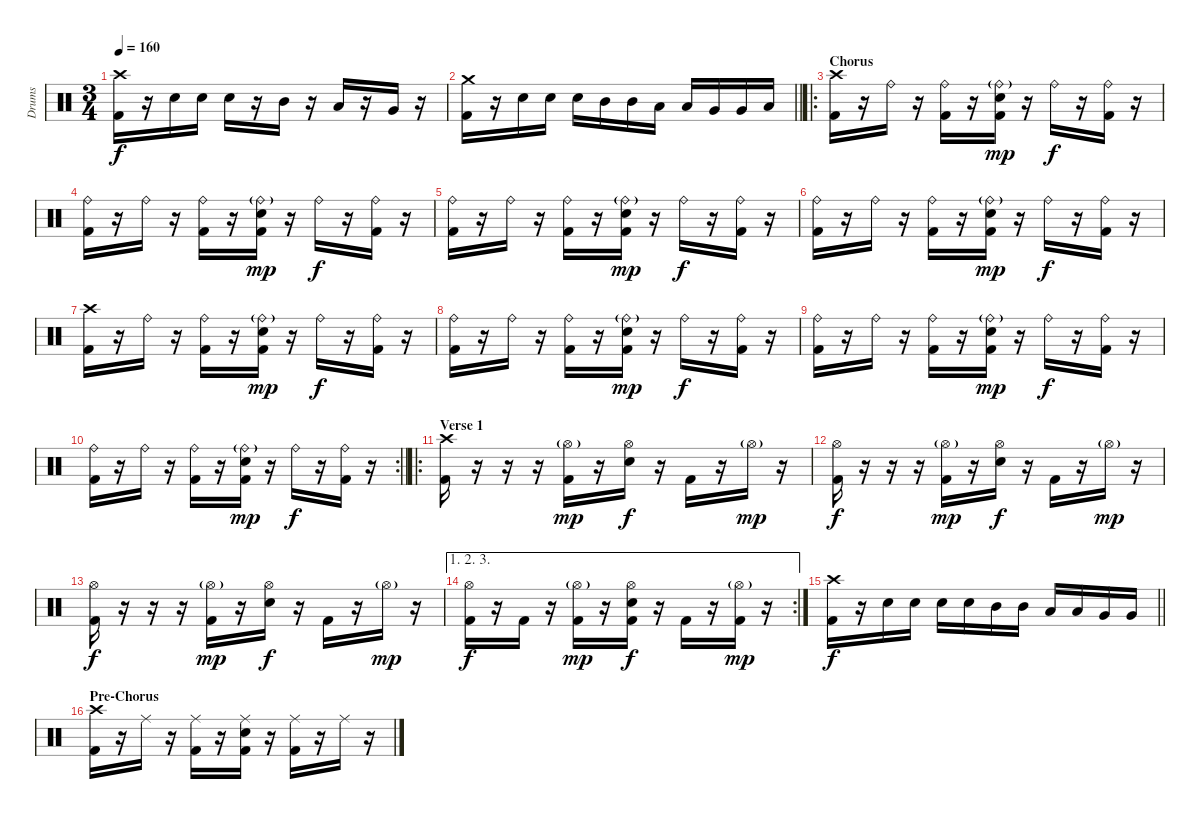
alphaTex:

\track ("Drums" "Drums") {instrument percussion}
\staff {score}
\articulation defaults
\ts (3 4)
\tempo 160
\clef neutral
\ks c
("Crash high (hit)" "Kick (hit) 2").16{dy f} r.16 "Snare (hit) 2".16 "Snare (hit) 2".16 "Snare (hit) 2".16 r.16 "Mid Tom (hit)".16 r.16 "Low Tom (hit)".16 r.16 "Very Low Tom (hit)".16 r.16 |
\barLineRight lightlight
("Crash medium (hit)" "Kick (hit) 2").16 r.16 "Snare (hit) 2".16 "Snare (hit) 2".16 "Snare (hit) 2".16 "Mid Tom (hit)".16 "Mid Tom (hit)".16 "Low Tom (hit)".16 "Low Tom (hit)".16 "Very Low Tom (hit)".16 "Very Low Tom (hit)".16 "Low Floor Tom (hit)".16 |
\ro
\section ("" "Chorus")
("Crash high (hit)" "Kick (hit) 2").16 r.16 "Ride (bell)".16 r.16 ("Ride (bell)" "Kick (hit) 2").16 r.16 ("Ride (bell)"{g} "Snare (hit) 2" "Kick (hit) 2").16{dy mp} r.16 "Ride (bell)".16{dy f} r.16 ("Ride (bell)" "Kick (hit) 2").16 r.16 |
("Ride (bell)" "Kick (hit) 2").16 r.16 "Ride (bell)".16 r.16 ("Ride (bell)" "Kick (hit) 2").16 r.16 ("Ride (bell)"{g} "Snare (hit) 2" "Kick (hit) 2").16{dy mp} r.16 "Ride (bell)".16{dy f} r.16 ("Ride (bell)" "Kick (hit) 2").16 r.16 |
("Ride (bell)" "Kick (hit) 2").16 r.16 "Ride (bell)".16 r.16 ("Ride (bell)" "Kick (hit) 2").16 r.16 ("Ride (bell)"{g} "Snare (hit) 2" "Kick (hit) 2").16{dy mp} r.16 "Ride (bell)".16{dy f} r.16 ("Ride (bell)" "Kick (hit) 2").16 r.16 |
("Ride (bell)" "Kick (hit) 2").16 r.16 "Ride (bell)".16 r.16 ("Ride (bell)" "Kick (hit) 2").16 r.16 ("Ride (bell)"{g} "Snare (hit) 2" "Kick (hit) 2").16{dy mp} r.16 "Ride (bell)".16{dy f} r.16 ("Ride (bell)" "Kick (hit) 2").16 r.16 |
("Crash high (hit)" "Kick (hit) 2").16 r.16 "Ride (bell)".16 r.16 ("Ride (bell)" "Kick (hit) 2").16 r.16 ("Ride (bell)"{g} "Snare (hit) 2" "Kick (hit) 2").16{dy mp} r.16 "Ride (bell)".16{dy f} r.16 ("Ride (bell)" "Kick (hit) 2").16 r.16 |
("Ride (bell)" "Kick (hit) 2").16 r.16 "Ride (bell)".16 r.16 ("Ride (bell)" "Kick (hit) 2").16 r.16 ("Ride (bell)"{g} "Snare (hit) 2" "Kick (hit) 2").16{dy mp} r.16 "Ride (bell)".16{dy f} r.16 ("Ride (bell)" "Kick (hit) 2").16 r.16 |
("Ride (bell)" "Kick (hit) 2").16 r.16 "Ride (bell)".16 r.16 ("Ride (bell)" "Kick (hit) 2").16 r.16 ("Ride (bell)"{g} "Snare (hit) 2" "Kick (hit) 2").16{dy mp} r.16 "Ride (bell)".16{dy f} r.16 ("Ride (bell)" "Kick (hit) 2").16 r.16 |
\rc 2
\barLineRight lightlight
("Ride (bell)" "Kick (hit) 2").16 r.16 "Ride (bell)".16 r.16 ("Ride (bell)" "Kick (hit) 2").16 r.16 ("Ride (bell)"{g} "Snare (hit) 2" "Kick (hit) 2").16{dy mp} r.16 "Ride (bell)".16{dy f} r.16 ("Ride (bell)" "Kick (hit) 2").16 r.16 |
\ro
\section ("" "Verse 1")
("Crash high (hit)" "Kick (hit) 2").16 r.16 r.16 r.16 ("Hi-Hat (open)"{g} "Kick (hit) 2").16{dy mp} r.16 ("Hi-Hat (open)" "Snare (hit) 2").16{dy f} r.16 "Kick (hit) 2".16 r.16 "Hi-Hat (open)"{g}.16{dy mp} r.16 |
("Hi-Hat (open)" "Kick (hit) 2").16{dy f} r.16 r.16 r.16 ("Hi-Hat (open)"{g} "Kick (hit) 2").16{dy mp} r.16 ("Hi-Hat (open)" "Snare (hit) 2").16{dy f} r.16 "Kick (hit) 2".16 r.16 "Hi-Hat (open)"{g}.16{dy mp} r.16 |
("Hi-Hat (open)" "Kick (hit) 2").16{dy f} r.16 r.16 r.16 ("Hi-Hat (open)"{g} "Kick (hit) 2").16{dy mp} r.16 ("Hi-Hat (open)" "Snare (hit) 2").16{dy f} r.16 "Kick (hit) 2".16 r.16 "Hi-Hat (open)"{g}.16{dy mp} r.16 |
\ae (1 2 3)
\rc 2
("Hi-Hat (open)" "Kick (hit) 2").16{dy f} r.16 "Kick (hit) 2".16 r.16 ("Hi-Hat (open)"{g} "Kick (hit) 2").16{dy mp} r.16 ("Hi-Hat (open)" "Snare (hit) 2" "Kick (hit) 2").16{dy f} r.16 "Kick (hit) 2".16 r.16 ("Hi-Hat (open)"{g} "Kick (hit) 2").16{dy mp} r.16 |
\barLineRight lightlight
("Crash high (hit)" "Kick (hit) 2").16{dy f} r.16 "Snare (hit) 2".16 "Snare (hit) 2".16 "Snare (hit) 2".16 "Snare (hit) 2".16 "Mid Tom (hit)".16 "Mid Tom (hit)".16 "Low Tom (hit)".16 "Low Tom (hit)".16 "Very Low Tom (hit)".16 "Very Low Tom (hit)".16 |
\section ("" "Pre-Chorus")
("Crash high (hit)" "Kick (hit) 2").16 r.16 "Ride (middle)".16 r.16 ("Ride (middle)" "Kick (hit) 2").16 r.16 ("Ride (middle)" "Snare (hit) 2" "Kick (hit) 2").16 r.16 ("Ride (middle)" "Kick (hit) 2").16 r.16 "Ride (middle)".16 r.16
